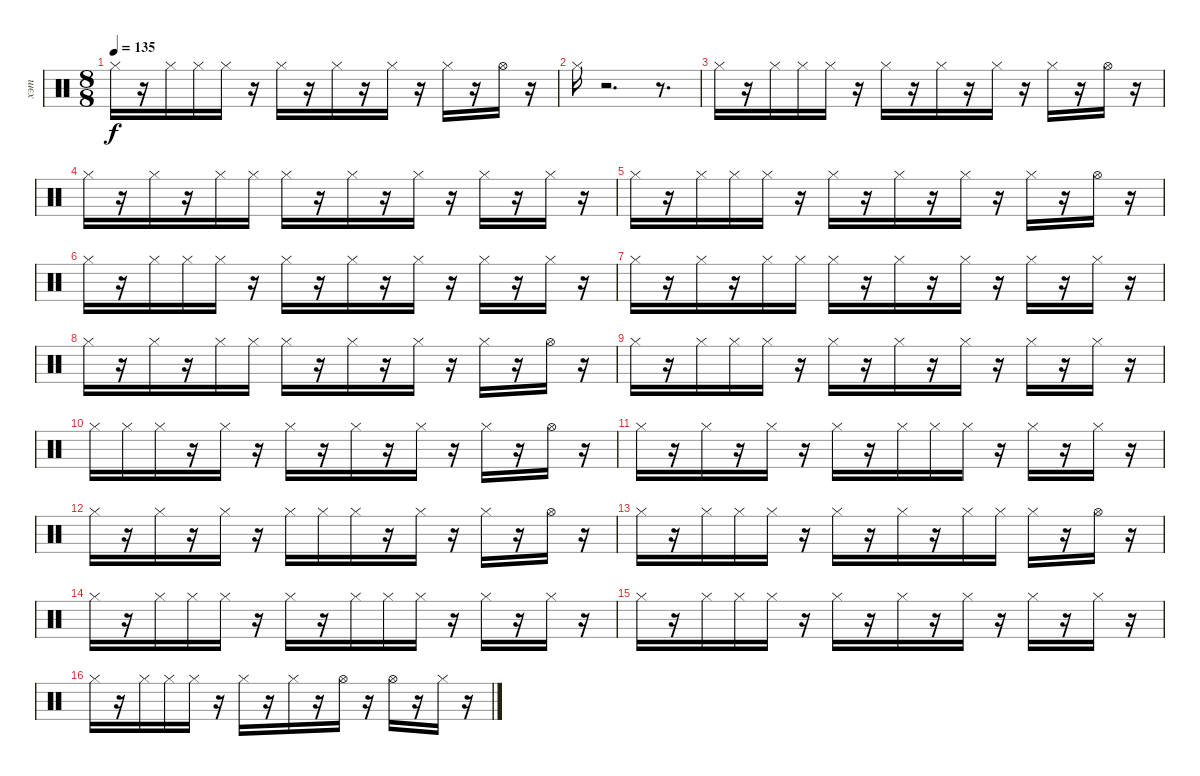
\track ("хэт" "хэт") {instrument percussion}
\staff {score}
\articulation defaults
\ts (8 8)
\tempo 135
\clef neutral
\ks c "Hi-Hat (closed)".16{dy f}
r.16 "Hi-Hat (closed)".16 "Hi-Hat (closed)".16 "Hi-Hat (closed)".16 r.16 "Hi-Hat (closed)".16 r.16 "Hi-Hat (closed)".16 r.16 "Hi-Hat (closed)".16 r.16 "Hi-Hat (closed)".16 r.16 "Hi-Hat (open)".16 r.16 |
"Hi-Hat (closed)".16 r.2{d} r.8{d} |
"Hi-Hat (closed)".16 r.16 "Hi-Hat (closed)".16 "Hi-Hat (closed)".16 "Hi-Hat (closed)".16 r.16 "Hi-Hat (closed)".16 r.16 "Hi-Hat (closed)".16 r.16 "Hi-Hat (closed)".16 r.16 "Hi-Hat (closed)".16 r.16 "Hi-Hat (open)".16 r.16 |
"Hi-Hat (closed)".16 r.16 "Hi-Hat (closed)".16 r.16 "Hi-Hat (closed)".16 "Hi-Hat (closed)".16 "Hi-Hat (closed)".16 r.16 "Hi-Hat (closed)".16 r.16 "Hi-Hat (closed)".16 r.16 "Hi-Hat (closed)".16 r.16 "Hi-Hat (closed)".16 r.16 |
"Hi-Hat (closed)".16 r.16 "Hi-Hat (closed)".16 "Hi-Hat (closed)".16 "Hi-Hat (closed)".16 r.16 "Hi-Hat (closed)".16 r.16 "Hi-Hat (closed)".16 r.16 "Hi-Hat (closed)".16 r.16 "Hi-Hat (closed)".16 r.16 "Hi-Hat (open)".16 r.16 |
"Hi-Hat (closed)".16 r.16 "Hi-Hat (closed)".16 "Hi-Hat (closed)".16 "Hi-Hat (closed)".16 r.16 "Hi-Hat (closed)".16 r.16 "Hi-Hat (closed)".16 r.16 "Hi-Hat (closed)".16 r.16 "Hi-Hat (closed)".16 r.16 "Hi-Hat (closed)".16 r.16 |
"Hi-Hat (closed)".16 r.16 "Hi-Hat (closed)".16 r.16 "Hi-Hat (closed)".16 "Hi-Hat (closed)".16 "Hi-Hat (closed)".16 r.16 "Hi-Hat (closed)".16 r.16 "Hi-Hat (closed)".16 r.16 "Hi-Hat (closed)".16 r.16 "Hi-Hat (closed)".16 r.16 |
"Hi-Hat (closed)".16 r.16 "Hi-Hat (closed)".16 r.16 "Hi-Hat (closed)".16 "Hi-Hat (closed)".16 "Hi-Hat (closed)".16 r.16 "Hi-Hat (closed)".16 r.16 "Hi-Hat (closed)".16 r.16 "Hi-Hat (closed)".16 r.16 "Hi-Hat (open)".16 r.16 |
"Hi-Hat (closed)".16 r.16 "Hi-Hat (closed)".16 "Hi-Hat (closed)".16 "Hi-Hat (closed)".16 r.16 "Hi-Hat (closed)".16 r.16 "Hi-Hat (closed)".16 r.16 "Hi-Hat (closed)".16 r.16 "Hi-Hat (closed)".16 r.16 "Hi-Hat (closed)".16 r.16 |
"Hi-Hat (closed)".16 "Hi-Hat (closed)".16 "Hi-Hat (closed)".16 r.16 "Hi-Hat (closed)".16 r.16 "Hi-Hat (closed)".16 r.16 "Hi-Hat (closed)".16 r.16 "Hi-Hat (closed)".16 r.16 "Hi-Hat (closed)".16 r.16 "Hi-Hat (open)".16 r.16 |
"Hi-Hat (closed)".16 r.16 "Hi-Hat (closed)".16 r.16 "Hi-Hat (closed)".16 r.16 "Hi-Hat (closed)".16 r.16 "Hi-Hat (closed)".16 "Hi-Hat (closed)".16 "Hi-Hat (closed)".16 r.16 "Hi-Hat (closed)".16 r.16 "Hi-Hat (closed)".16 r.16 |
"Hi-Hat (closed)".16 r.16 "Hi-Hat (closed)".16 r.16 "Hi-Hat (closed)".16 r.16 "Hi-Hat (closed)".16 "Hi-Hat (closed)".16 "Hi-Hat (closed)".16 r.16 "Hi-Hat (closed)".16 r.16 "Hi-Hat (closed)".16 r.16 "Hi-Hat (open)".16 r.16 |
"Hi-Hat (closed)".16 r.16 "Hi-Hat (closed)".16 "Hi-Hat (closed)".16 "Hi-Hat (closed)".16 r.16 "Hi-Hat (closed)".16 r.16 "Hi-Hat (closed)".16 r.16 "Hi-Hat (closed)".16 "Hi-Hat (closed)".16 "Hi-Hat (closed)".16 r.16 "Hi-Hat (open)".16 r.16 |
"Hi-Hat (closed)".16 r.16 "Hi-Hat (closed)".16 "Hi-Hat (closed)".16 "Hi-Hat (closed)".16 r.16 "Hi-Hat (closed)".16 r.16 "Hi-Hat (closed)".16 "Hi-Hat (closed)".16 "Hi-Hat (closed)".16 r.16 "Hi-Hat (closed)".16 r.16 "Hi-Hat (closed)".16 r.16 |
"Hi-Hat (closed)".16 r.16 "Hi-Hat (closed)".16 "Hi-Hat (closed)".16 "Hi-Hat (closed)".16 r.16 "Hi-Hat (closed)".16 r.16 "Hi-Hat (closed)".16 r.16 "Hi-Hat (closed)".16 r.16 "Hi-Hat (closed)".16 r.16 "Hi-Hat (closed)".16 r.16 |
"Hi-Hat (closed)".16 r.16 "Hi-Hat (closed)".16 "Hi-Hat (closed)".16 "Hi-Hat (closed)".16 r.16 "Hi-Hat (closed)".16 r.16 "Hi-Hat (closed)".16 r.16 "Hi-Hat (open)".16 r.16 "Hi-Hat (open)".16 r.16 "Hi-Hat (closed)".16 r.16
